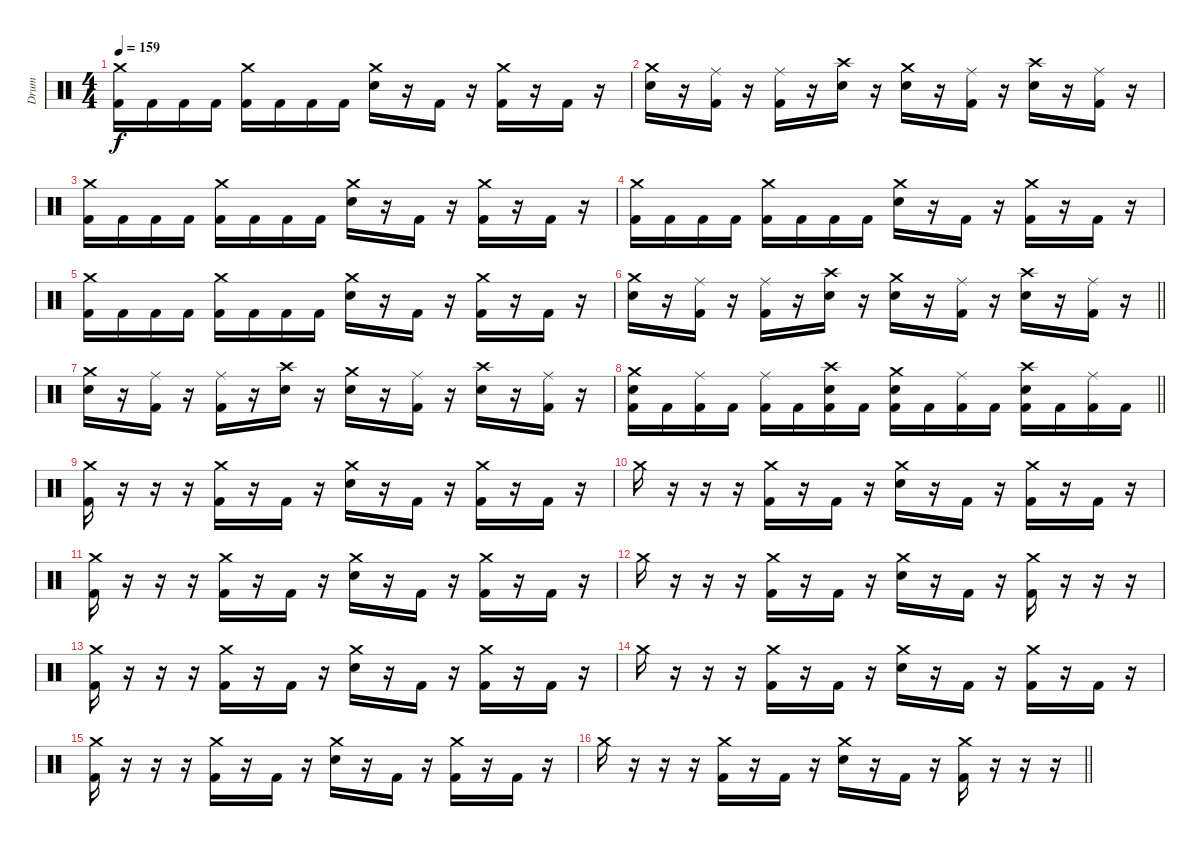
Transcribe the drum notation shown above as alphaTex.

\track ("Drum" "Drum") {instrument percussion}
\staff {score}
\articulation defaults
\ts (4 4)
\tempo 159
\clef neutral
\ks c
("Crash medium (hit)" "Kick (hit) 2").16{dy f} "Kick (hit) 2".16 "Kick (hit) 2".16 "Kick (hit) 2".16 ("Crash medium (hit)" "Kick (hit) 2").16 "Kick (hit) 2".16 "Kick (hit) 2".16 "Kick (hit) 2".16 ("Crash medium (hit)" "Snare (hit) 2").16 r.16 "Kick (hit) 2".16 r.16 ("Crash medium (hit)" "Kick (hit) 2").16 r.16 "Kick (hit) 2".16 r.16 |
("Crash medium (hit)" "Snare (hit) 2").16 r.16 ("Ride (middle)" "Kick (hit) 2").16 r.16 ("Ride (middle)" "Kick (hit) 2").16 r.16 ("Crash high (hit)" "Snare (hit) 2").16 r.16 ("Crash medium (hit)" "Snare (hit) 2").16 r.16 ("Ride (middle)" "Kick (hit) 2").16 r.16 ("Crash high (hit)" "Snare (hit) 2").16 r.16 ("Ride (middle)" "Kick (hit) 2").16 r.16 |
("Crash medium (hit)" "Kick (hit) 2").16 "Kick (hit) 2".16 "Kick (hit) 2".16 "Kick (hit) 2".16 ("Crash medium (hit)" "Kick (hit) 2").16 "Kick (hit) 2".16 "Kick (hit) 2".16 "Kick (hit) 2".16 ("Crash medium (hit)" "Snare (hit) 2").16 r.16 "Kick (hit) 2".16 r.16 ("Crash medium (hit)" "Kick (hit) 2").16 r.16 "Kick (hit) 2".16 r.16 |
("Crash medium (hit)" "Kick (hit) 2").16 "Kick (hit) 2".16 "Kick (hit) 2".16 "Kick (hit) 2".16 ("Crash medium (hit)" "Kick (hit) 2").16 "Kick (hit) 2".16 "Kick (hit) 2".16 "Kick (hit) 2".16 ("Crash medium (hit)" "Snare (hit) 2").16 r.16 "Kick (hit) 2".16 r.16 ("Crash medium (hit)" "Kick (hit) 2").16 r.16 "Kick (hit) 2".16 r.16 |
("Crash medium (hit)" "Kick (hit) 2").16 "Kick (hit) 2".16 "Kick (hit) 2".16 "Kick (hit) 2".16 ("Crash medium (hit)" "Kick (hit) 2").16 "Kick (hit) 2".16 "Kick (hit) 2".16 "Kick (hit) 2".16 ("Crash medium (hit)" "Snare (hit) 2").16 r.16 "Kick (hit) 2".16 r.16 ("Crash medium (hit)" "Kick (hit) 2").16 r.16 "Kick (hit) 2".16 r.16 |
\barLineRight lightlight
("Crash medium (hit)" "Snare (hit) 2").16 r.16 ("Ride (middle)" "Kick (hit) 2").16 r.16 ("Ride (middle)" "Kick (hit) 2").16 r.16 ("Crash high (hit)" "Snare (hit) 2").16 r.16 ("Crash medium (hit)" "Snare (hit) 2").16 r.16 ("Ride (middle)" "Kick (hit) 2").16 r.16 ("Crash high (hit)" "Snare (hit) 2").16 r.16 ("Ride (middle)" "Kick (hit) 2").16 r.16 |
("Crash medium (hit)" "Snare (hit) 2").16 r.16 ("Ride (middle)" "Kick (hit) 2").16 r.16 ("Ride (middle)" "Kick (hit) 2").16 r.16 ("Crash high (hit)" "Snare (hit) 2").16 r.16 ("Crash medium (hit)" "Snare (hit) 2").16 r.16 ("Ride (middle)" "Kick (hit) 2").16 r.16 ("Crash high (hit)" "Snare (hit) 2").16 r.16 ("Ride (middle)" "Kick (hit) 2").16 r.16 |
\barLineRight lightlight
("Crash medium (hit)" "Snare (hit) 2" "Kick (hit) 2").16 "Kick (hit) 2".16 ("Ride (middle)" "Kick (hit) 2").16 "Kick (hit) 2".16 ("Ride (middle)" "Kick (hit) 2").16 "Kick (hit) 2".16 ("Crash high (hit)" "Snare (hit) 2" "Kick (hit) 2").16 "Kick (hit) 2".16 ("Crash medium (hit)" "Snare (hit) 2" "Kick (hit) 2").16 "Kick (hit) 2".16 ("Ride (middle)" "Kick (hit) 2").16 "Kick (hit) 2".16 ("Crash high (hit)" "Snare (hit) 2" "Kick (hit) 2").16 "Kick (hit) 2".16 ("Ride (middle)" "Kick (hit) 2").16 "Kick (hit) 2".16 |
\section ("" "")
("Crash medium (hit)" "Kick (hit) 2").16 r.16 r.16 r.16 ("Crash medium (hit)" "Kick (hit) 2").16 r.16 "Kick (hit) 2".16 r.16 ("Crash medium (hit)" "Snare (hit) 2").16 r.16 "Kick (hit) 2".16 r.16 ("Crash medium (hit)" "Kick (hit) 2").16 r.16 "Kick (hit) 2".16 r.16 |
"Crash medium (hit)".16 r.16 r.16 r.16 ("Crash medium (hit)" "Kick (hit) 2").16 r.16 "Kick (hit) 2".16 r.16 ("Crash medium (hit)" "Snare (hit) 2").16 r.16 "Kick (hit) 2".16 r.16 ("Crash medium (hit)" "Kick (hit) 2").16 r.16 "Kick (hit) 2".16 r.16 |
("Crash medium (hit)" "Kick (hit) 2").16 r.16 r.16 r.16 ("Crash medium (hit)" "Kick (hit) 2").16 r.16 "Kick (hit) 2".16 r.16 ("Crash medium (hit)" "Snare (hit) 2").16 r.16 "Kick (hit) 2".16 r.16 ("Crash medium (hit)" "Kick (hit) 2").16 r.16 "Kick (hit) 2".16 r.16 |
"Crash medium (hit)".16 r.16 r.16 r.16 ("Crash medium (hit)" "Kick (hit) 2").16 r.16 "Kick (hit) 2".16 r.16 ("Crash medium (hit)" "Snare (hit) 2").16 r.16 "Kick (hit) 2".16 r.16 ("Crash medium (hit)" "Kick (hit) 2").16 r.16 r.16 r.16 |
("Crash medium (hit)" "Kick (hit) 2").16 r.16 r.16 r.16 ("Crash medium (hit)" "Kick (hit) 2").16 r.16 "Kick (hit) 2".16 r.16 ("Crash medium (hit)" "Snare (hit) 2").16 r.16 "Kick (hit) 2".16 r.16 ("Crash medium (hit)" "Kick (hit) 2").16 r.16 "Kick (hit) 2".16 r.16 |
"Crash medium (hit)".16 r.16 r.16 r.16 ("Crash medium (hit)" "Kick (hit) 2").16 r.16 "Kick (hit) 2".16 r.16 ("Crash medium (hit)" "Snare (hit) 2").16 r.16 "Kick (hit) 2".16 r.16 ("Crash medium (hit)" "Kick (hit) 2").16 r.16 "Kick (hit) 2".16 r.16 |
("Crash medium (hit)" "Kick (hit) 2").16 r.16 r.16 r.16 ("Crash medium (hit)" "Kick (hit) 2").16 r.16 "Kick (hit) 2".16 r.16 ("Crash medium (hit)" "Snare (hit) 2").16 r.16 "Kick (hit) 2".16 r.16 ("Crash medium (hit)" "Kick (hit) 2").16 r.16 "Kick (hit) 2".16 r.16 |
\barLineRight lightlight "Crash medium (hit)".16
r.16 r.16 r.16 ("Crash medium (hit)" "Kick (hit) 2").16 r.16 "Kick (hit) 2".16 r.16 ("Crash medium (hit)" "Snare (hit) 2").16 r.16 "Kick (hit) 2".16 r.16 ("Crash medium (hit)" "Kick (hit) 2").16 r.16 r.16 r.16
